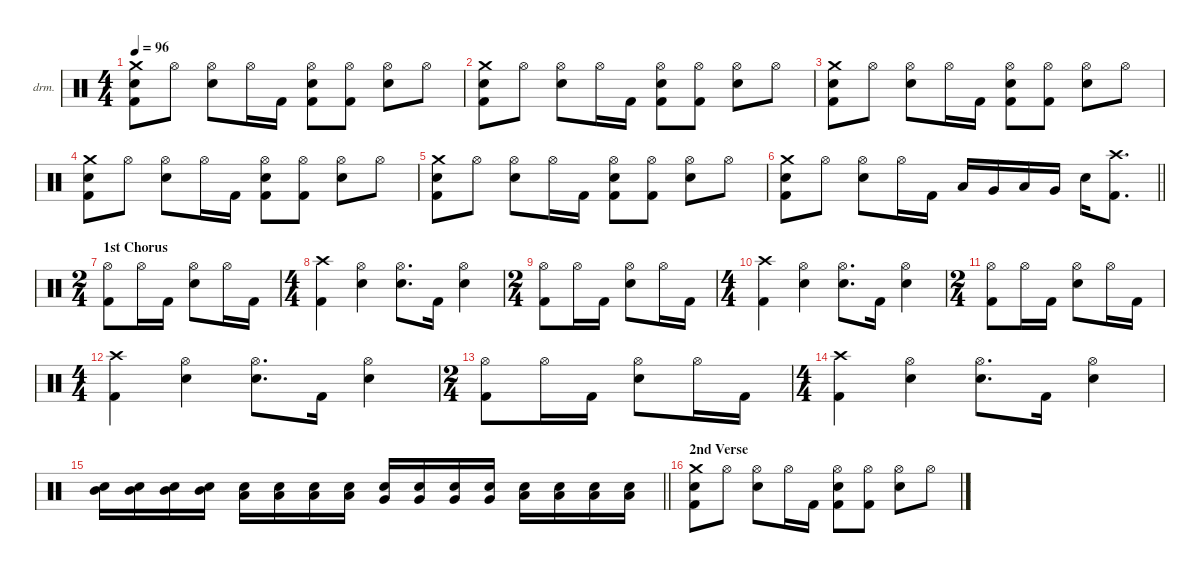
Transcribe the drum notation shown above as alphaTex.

\defaultSystemsLayout 4
\hideDynamics
\bracketExtendMode nobrackets
\firstSystemTrackNameOrientation horizontal
\otherSystemsTrackNameOrientation horizontal
\track ("Percussion" "drm.") {instrument percussion}
\staff {score}
\articulation defaults
\ts (4 4)
\tempo 96
\clef neutral
\ks c
("Crash medium (hit)" "Snare (hit) 2" "Kick (hit) 2").8{dy f} "Hi-Hat (open)".8 ("Hi-Hat (open)" "Snare (hit) 2").8 "Hi-Hat (open)".16 "Kick (hit) 2".16 ("Hi-Hat (open)" "Snare (hit) 2" "Kick (hit) 2").8 ("Hi-Hat (open)" "Kick (hit) 2").8 ("Hi-Hat (open)" "Snare (hit) 2").8 "Hi-Hat (open)".8 |
("Crash medium (hit)" "Snare (hit) 2" "Kick (hit) 2").8 "Hi-Hat (open)".8 ("Hi-Hat (open)" "Snare (hit) 2").8 "Hi-Hat (open)".16 "Kick (hit) 2".16 ("Hi-Hat (open)" "Snare (hit) 2" "Kick (hit) 2").8 ("Hi-Hat (open)" "Kick (hit) 2").8 ("Hi-Hat (open)" "Snare (hit) 2").8 "Hi-Hat (open)".8 |
("Crash medium (hit)" "Snare (hit) 2" "Kick (hit) 2").8 "Hi-Hat (open)".8 ("Hi-Hat (open)" "Snare (hit) 2").8 "Hi-Hat (open)".16 "Kick (hit) 2".16 ("Hi-Hat (open)" "Snare (hit) 2" "Kick (hit) 2").8 ("Hi-Hat (open)" "Kick (hit) 2").8 ("Hi-Hat (open)" "Snare (hit) 2").8 "Hi-Hat (open)".8 |
("Crash medium (hit)" "Snare (hit) 2" "Kick (hit) 2").8 "Hi-Hat (open)".8 ("Hi-Hat (open)" "Snare (hit) 2").8 "Hi-Hat (open)".16 "Kick (hit) 2".16 ("Hi-Hat (open)" "Snare (hit) 2" "Kick (hit) 2").8 ("Hi-Hat (open)" "Kick (hit) 2").8 ("Hi-Hat (open)" "Snare (hit) 2").8 "Hi-Hat (open)".8 |
("Crash medium (hit)" "Snare (hit) 2" "Kick (hit) 2").8 "Hi-Hat (open)".8 ("Hi-Hat (open)" "Snare (hit) 2").8 "Hi-Hat (open)".16 "Kick (hit) 2".16 ("Hi-Hat (open)" "Snare (hit) 2" "Kick (hit) 2").8 ("Hi-Hat (open)" "Kick (hit) 2").8 ("Hi-Hat (open)" "Snare (hit) 2").8 "Hi-Hat (open)".8 |
\barLineRight lightlight
("Crash medium (hit)" "Snare (hit) 2" "Kick (hit) 2").8 "Hi-Hat (open)".8 ("Hi-Hat (open)" "Snare (hit) 2").8 "Hi-Hat (open)".16 "Kick (hit) 2".16 "Low Tom (hit)".16 "Very Low Tom (hit)".16 "Low Tom (hit)".16 "Very Low Tom (hit)".16 "Snare (hit) 2".16 ("Crash high (hit)" "Kick (hit) 2").8{d} |
\ts (2 4)
\beaming (8 2 2)
\section ("" "1st Chorus")
("Hi-Hat (open)" "Kick (hit) 2").8 "Hi-Hat (open)".16 "Kick (hit) 2".16 ("Hi-Hat (open)" "Snare (hit) 2").8 "Hi-Hat (open)".16 "Kick (hit) 2".16 |
\ts (4 4)
\beaming (8 2 2 2 2)
("Crash high (hit)" "Kick (hit) 2").4 ("Hi-Hat (open)" "Snare (hit) 2").4 ("Hi-Hat (open)" "Snare (hit) 2").8{d} "Kick (hit) 2".16 ("Hi-Hat (open)" "Snare (hit) 2").4 |
\ts (2 4)
\beaming (8 2 2)
("Hi-Hat (open)" "Kick (hit) 2").8 "Hi-Hat (open)".16 "Kick (hit) 2".16 ("Hi-Hat (open)" "Snare (hit) 2").8 "Hi-Hat (open)".16 "Kick (hit) 2".16 |
\ts (4 4)
\beaming (8 2 2 2 2)
("Crash high (hit)" "Kick (hit) 2").4 ("Hi-Hat (open)" "Snare (hit) 2").4 ("Hi-Hat (open)" "Snare (hit) 2").8{d} "Kick (hit) 2".16 ("Hi-Hat (open)" "Snare (hit) 2").4 |
\ts (2 4)
\beaming (8 2 2)
("Hi-Hat (open)" "Kick (hit) 2").8 "Hi-Hat (open)".16 "Kick (hit) 2".16 ("Hi-Hat (open)" "Snare (hit) 2").8 "Hi-Hat (open)".16 "Kick (hit) 2".16 |
\ts (4 4)
\beaming (8 2 2 2 2)
("Crash high (hit)" "Kick (hit) 2").4 ("Hi-Hat (open)" "Snare (hit) 2").4 ("Hi-Hat (open)" "Snare (hit) 2").8{d} "Kick (hit) 2".16 ("Hi-Hat (open)" "Snare (hit) 2").4 |
\ts (2 4)
\beaming (8 2 2)
("Hi-Hat (open)" "Kick (hit) 2").8 "Hi-Hat (open)".16 "Kick (hit) 2".16 ("Hi-Hat (open)" "Snare (hit) 2").8 "Hi-Hat (open)".16 "Kick (hit) 2".16 |
\ts (4 4)
\beaming (8 2 2 2 2)
("Crash high (hit)" "Kick (hit) 2").4 ("Hi-Hat (open)" "Snare (hit) 2").4 ("Hi-Hat (open)" "Snare (hit) 2").8{d} "Kick (hit) 2".16 ("Hi-Hat (open)" "Snare (hit) 2").4 |
\barLineRight lightlight
("Snare (hit) 2" "Mid Tom (hit)").16{dy p} ("Snare (hit) 2" "Mid Tom (hit)").16 ("Snare (hit) 2" "Mid Tom (hit)").16 ("Snare (hit) 2" "Mid Tom (hit)").16 ("Snare (hit) 2" "Low Tom (hit)").16{dy mp} ("Snare (hit) 2" "Low Tom (hit)").16 ("Snare (hit) 2" "Low Tom (hit)").16 ("Snare (hit) 2" "Low Tom (hit)").16 ("Snare (hit) 2" "Very Low Tom (hit)").16{dy mf} ("Snare (hit) 2" "Very Low Tom (hit)").16 ("Snare (hit) 2" "Very Low Tom (hit)").16 ("Snare (hit) 2" "Very Low Tom (hit)").16 ("Snare (hit) 2" "Low Floor Tom (hit)").16{dy f} ("Snare (hit) 2" "Low Floor Tom (hit)").16 ("Snare (hit) 2" "Low Floor Tom (hit)").16 ("Snare (hit) 2" "Low Floor Tom (hit)").16 |
\section ("" "2nd Verse")
("Crash medium (hit)" "Snare (hit) 2" "Kick (hit) 2").8 "Hi-Hat (open)".8 ("Hi-Hat (open)" "Snare (hit) 2").8 "Hi-Hat (open)".16 "Kick (hit) 2".16 ("Hi-Hat (open)" "Snare (hit) 2" "Kick (hit) 2").8 ("Hi-Hat (open)" "Kick (hit) 2").8 ("Hi-Hat (open)" "Snare (hit) 2").8 "Hi-Hat (open)".8
